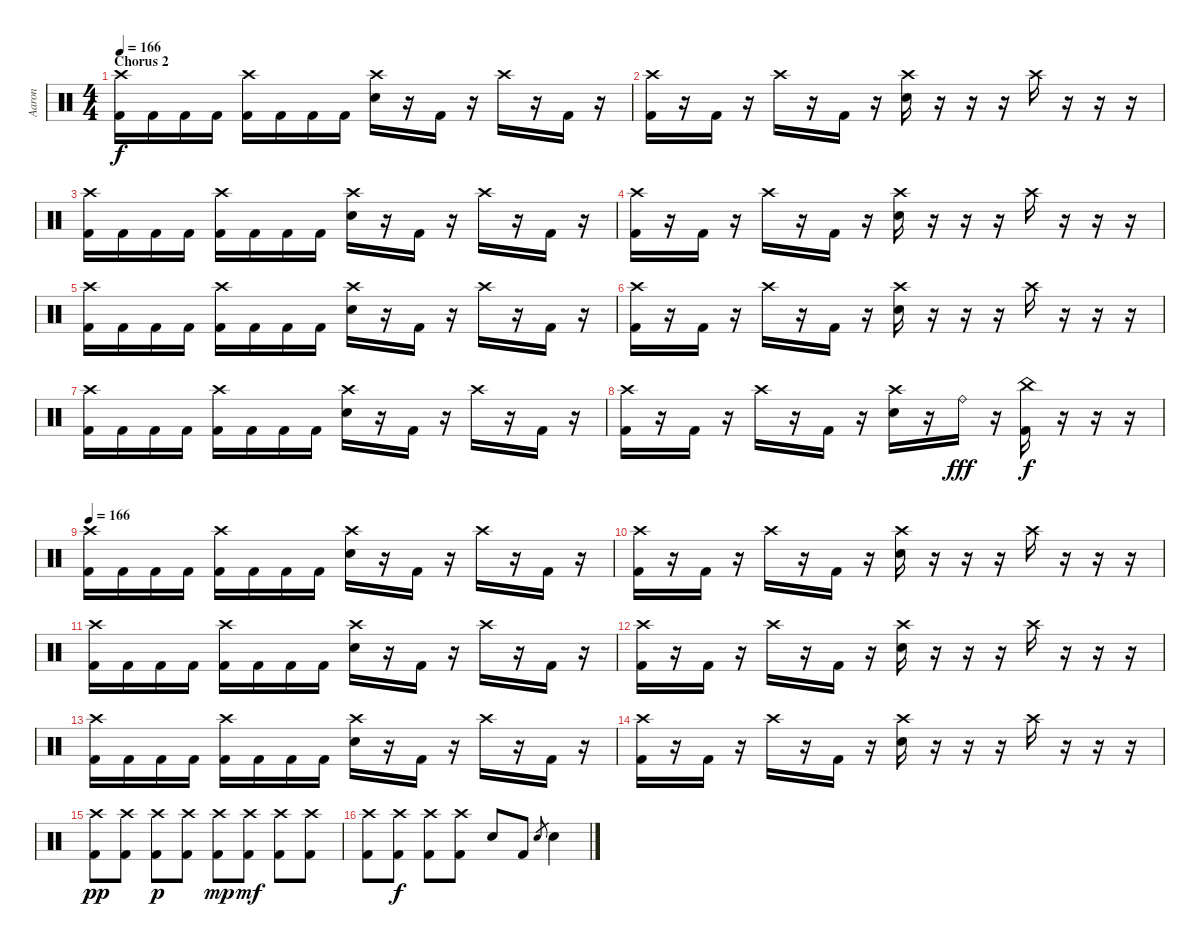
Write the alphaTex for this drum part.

\track ("Aaron" "Aaron") {instrument percussion}
\staff {score}
\articulation defaults
\ts (4 4)
\section ("" "Chorus 2")
\tempo 166
\clef neutral
\ks c
("Crash high (hit)" "Kick (hit) 2").16{dy f} "Kick (hit) 2".16 "Kick (hit) 2".16 "Kick (hit) 2".16 ("Crash high (hit)" "Kick (hit) 2").16 "Kick (hit) 2".16 "Kick (hit) 2".16 "Kick (hit) 2".16 ("Crash high (hit)" "Snare (hit) 2").16 r.16 "Kick (hit) 2".16 r.16 "Crash high (hit)".16 r.16 "Kick (hit) 2".16 r.16 |
("Crash high (hit)" "Kick (hit) 2").16 r.16 "Kick (hit) 2".16 r.16 "Crash high (hit)".16 r.16 "Kick (hit) 2".16 r.16 ("Crash high (hit)" "Snare (hit) 2").16 r.16 r.16 r.16 "Crash high (hit)".16 r.16 r.16 r.16 |
("Crash high (hit)" "Kick (hit) 2").16 "Kick (hit) 2".16 "Kick (hit) 2".16 "Kick (hit) 2".16 ("Crash high (hit)" "Kick (hit) 2").16 "Kick (hit) 2".16 "Kick (hit) 2".16 "Kick (hit) 2".16 ("Crash high (hit)" "Snare (hit) 2").16 r.16 "Kick (hit) 2".16 r.16 "Crash high (hit)".16 r.16 "Kick (hit) 2".16 r.16 |
("Crash high (hit)" "Kick (hit) 2").16 r.16 "Kick (hit) 2".16 r.16 "Crash high (hit)".16 r.16 "Kick (hit) 2".16 r.16 ("Crash high (hit)" "Snare (hit) 2").16 r.16 r.16 r.16 "Crash high (hit)".16 r.16 r.16 r.16 |
("Crash high (hit)" "Kick (hit) 2").16 "Kick (hit) 2".16 "Kick (hit) 2".16 "Kick (hit) 2".16 ("Crash high (hit)" "Kick (hit) 2").16 "Kick (hit) 2".16 "Kick (hit) 2".16 "Kick (hit) 2".16 ("Crash high (hit)" "Snare (hit) 2").16 r.16 "Kick (hit) 2".16 r.16 "Crash high (hit)".16 r.16 "Kick (hit) 2".16 r.16 |
("Crash high (hit)" "Kick (hit) 2").16 r.16 "Kick (hit) 2".16 r.16 "Crash high (hit)".16 r.16 "Kick (hit) 2".16 r.16 ("Crash high (hit)" "Snare (hit) 2").16 r.16 r.16 r.16 "Crash high (hit)".16 r.16 r.16 r.16 |
("Crash high (hit)" "Kick (hit) 2").16 "Kick (hit) 2".16 "Kick (hit) 2".16 "Kick (hit) 2".16 ("Crash high (hit)" "Kick (hit) 2").16 "Kick (hit) 2".16 "Kick (hit) 2".16 "Kick (hit) 2".16 ("Crash high (hit)" "Snare (hit) 2").16 r.16 "Kick (hit) 2".16 r.16 "Crash high (hit)".16 r.16 "Kick (hit) 2".16 r.16 |
("Crash high (hit)" "Kick (hit) 2").16 r.16 "Kick (hit) 2".16 r.16 "Crash high (hit)".16 r.16 "Kick (hit) 2".16 r.16 ("Crash high (hit)" "Snare (hit) 2").16 r.16 "Ride (bell)".16{dy fff} r.16 ("China (hit)" "Kick (hit) 2").16{dy f} r.16 r.16 r.16 |
\tempo 166
("Crash high (hit)" "Kick (hit) 2").16 "Kick (hit) 2".16 "Kick (hit) 2".16 "Kick (hit) 2".16 ("Crash high (hit)" "Kick (hit) 2").16 "Kick (hit) 2".16 "Kick (hit) 2".16 "Kick (hit) 2".16 ("Crash high (hit)" "Snare (hit) 2").16 r.16 "Kick (hit) 2".16 r.16 "Crash high (hit)".16 r.16 "Kick (hit) 2".16 r.16 |
("Crash high (hit)" "Kick (hit) 2").16 r.16 "Kick (hit) 2".16 r.16 "Crash high (hit)".16 r.16 "Kick (hit) 2".16 r.16 ("Crash high (hit)" "Snare (hit) 2").16 r.16 r.16 r.16 "Crash high (hit)".16 r.16 r.16 r.16 |
("Crash high (hit)" "Kick (hit) 2").16 "Kick (hit) 2".16 "Kick (hit) 2".16 "Kick (hit) 2".16 ("Crash high (hit)" "Kick (hit) 2").16 "Kick (hit) 2".16 "Kick (hit) 2".16 "Kick (hit) 2".16 ("Crash high (hit)" "Snare (hit) 2").16 r.16 "Kick (hit) 2".16 r.16 "Crash high (hit)".16 r.16 "Kick (hit) 2".16 r.16 |
("Crash high (hit)" "Kick (hit) 2").16 r.16 "Kick (hit) 2".16 r.16 "Crash high (hit)".16 r.16 "Kick (hit) 2".16 r.16 ("Crash high (hit)" "Snare (hit) 2").16 r.16 r.16 r.16 "Crash high (hit)".16 r.16 r.16 r.16 |
("Crash high (hit)" "Kick (hit) 2").16 "Kick (hit) 2".16 "Kick (hit) 2".16 "Kick (hit) 2".16 ("Crash high (hit)" "Kick (hit) 2").16 "Kick (hit) 2".16 "Kick (hit) 2".16 "Kick (hit) 2".16 ("Crash high (hit)" "Snare (hit) 2").16 r.16 "Kick (hit) 2".16 r.16 "Crash high (hit)".16 r.16 "Kick (hit) 2".16 r.16 |
("Crash high (hit)" "Kick (hit) 2").16 r.16 "Kick (hit) 2".16 r.16 "Crash high (hit)".16 r.16 "Kick (hit) 2".16 r.16 ("Crash high (hit)" "Snare (hit) 2").16 r.16 r.16 r.16 "Crash high (hit)".16 r.16 r.16 r.16 |
("Crash high (hit)" "Kick (hit) 2").8{dy pp} ("Crash high (hit)" "Kick (hit) 2").8 ("Crash high (hit)" "Kick (hit) 2").8{dy p} ("Crash high (hit)" "Kick (hit) 2").8 ("Crash high (hit)" "Kick (hit) 2").8{dy mp} ("Crash high (hit)" "Kick (hit) 2").8{dy mf} ("Crash high (hit)" "Kick (hit) 2").8 ("Crash high (hit)" "Kick (hit) 2").8 |
("Crash high (hit)" "Kick (hit) 2").8 ("Crash high (hit)" "Kick (hit) 2").8{dy f} ("Crash high (hit)" "Kick (hit) 2").8 ("Crash high (hit)" "Kick (hit) 2").8 "Snare (hit) 2".8 "Kick (hit) 2".8 "Snare (hit) 2".8{gr} "Snare (hit) 2".4
